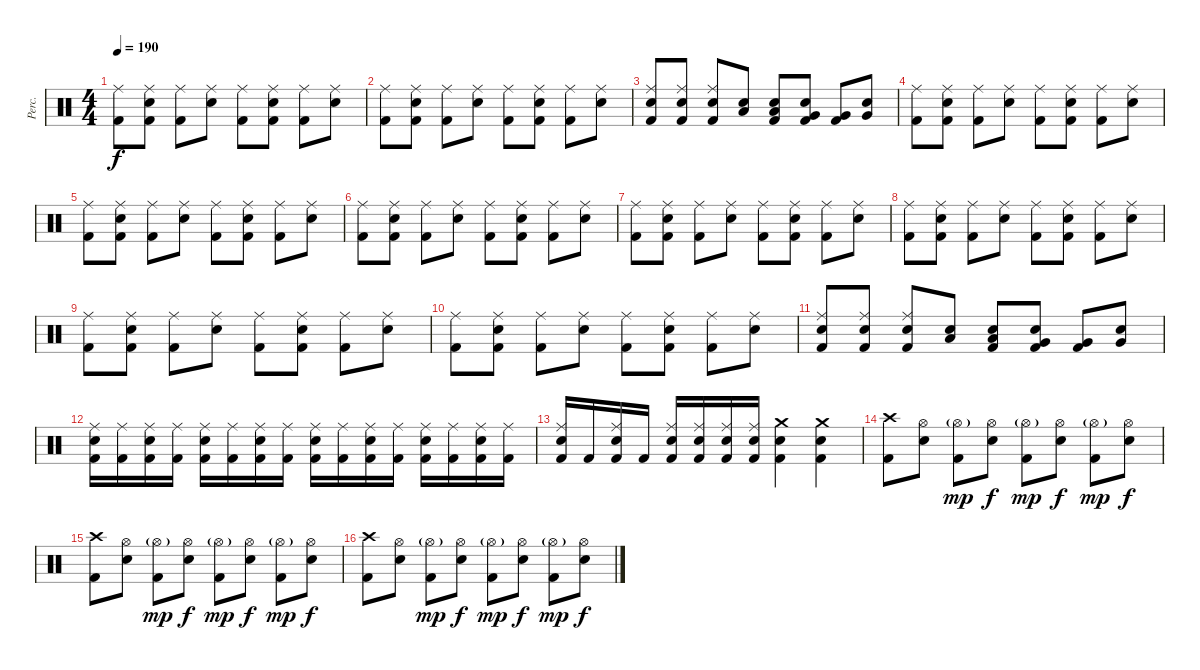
\track ("Perc." "Perc.") {instrument percussion}
\staff {score}
\articulation defaults
\ts (4 4)
\tempo 190
\clef neutral
\ks c
("Kick (hit) 2" "Ride (middle)").8{dy f} ("Kick (hit) 2" "Snare (hit) 2" "Ride (middle)").8 ("Kick (hit) 2" "Ride (middle)").8 ("Snare (hit) 2" "Ride (middle)").8 ("Kick (hit) 2" "Ride (middle)").8 ("Kick (hit) 2" "Snare (hit) 2" "Ride (middle)").8 ("Kick (hit) 2" "Ride (middle)").8 ("Snare (hit) 2" "Ride (middle)").8 |
("Kick (hit) 2" "Ride (middle)").8 ("Kick (hit) 2" "Snare (hit) 2" "Ride (middle)").8 ("Kick (hit) 2" "Ride (middle)").8 ("Snare (hit) 2" "Ride (middle)").8 ("Kick (hit) 2" "Ride (middle)").8 ("Kick (hit) 2" "Snare (hit) 2" "Ride (middle)").8 ("Kick (hit) 2" "Ride (middle)").8 ("Snare (hit) 2" "Ride (middle)").8 |
("Kick (hit) 2" "Snare (hit) 2" "Ride (middle)").8 ("Kick (hit) 2" "Snare (hit) 2" "Ride (middle)").8 ("Kick (hit) 2" "Snare (hit) 2" "Ride (middle)").8 ("Snare (hit) 2" "Low Tom (hit)").8 ("Kick (hit) 2" "Snare (hit) 2" "Low Tom (hit)").8 ("Kick (hit) 2" "Snare (hit) 2" "Very Low Tom (hit)").8 ("Kick (hit) 2" "Very Low Tom (hit)").8 ("Snare (hit) 2" "Very Low Tom (hit)").8 |
("Kick (hit) 2" "Ride (middle)").8 ("Kick (hit) 2" "Snare (hit) 2" "Ride (middle)").8 ("Kick (hit) 2" "Ride (middle)").8 ("Snare (hit) 2" "Ride (middle)").8 ("Kick (hit) 2" "Ride (middle)").8 ("Kick (hit) 2" "Snare (hit) 2" "Ride (middle)").8 ("Kick (hit) 2" "Ride (middle)").8 ("Snare (hit) 2" "Ride (middle)").8 |
("Kick (hit) 2" "Ride (middle)").8 ("Kick (hit) 2" "Snare (hit) 2" "Ride (middle)").8 ("Kick (hit) 2" "Ride (middle)").8 ("Snare (hit) 2" "Ride (middle)").8 ("Kick (hit) 2" "Ride (middle)").8 ("Kick (hit) 2" "Snare (hit) 2" "Ride (middle)").8 ("Kick (hit) 2" "Ride (middle)").8 ("Snare (hit) 2" "Ride (middle)").8 |
("Kick (hit) 2" "Ride (middle)").8 ("Kick (hit) 2" "Snare (hit) 2" "Ride (middle)").8 ("Kick (hit) 2" "Ride (middle)").8 ("Snare (hit) 2" "Ride (middle)").8 ("Kick (hit) 2" "Ride (middle)").8 ("Kick (hit) 2" "Snare (hit) 2" "Ride (middle)").8 ("Kick (hit) 2" "Ride (middle)").8 ("Snare (hit) 2" "Ride (middle)").8 |
("Kick (hit) 2" "Ride (middle)").8 ("Kick (hit) 2" "Snare (hit) 2" "Ride (middle)").8 ("Kick (hit) 2" "Ride (middle)").8 ("Snare (hit) 2" "Ride (middle)").8 ("Kick (hit) 2" "Ride (middle)").8 ("Kick (hit) 2" "Snare (hit) 2" "Ride (middle)").8 ("Kick (hit) 2" "Ride (middle)").8 ("Snare (hit) 2" "Ride (middle)").8 |
("Kick (hit) 2" "Ride (middle)").8 ("Kick (hit) 2" "Snare (hit) 2" "Ride (middle)").8 ("Kick (hit) 2" "Ride (middle)").8 ("Snare (hit) 2" "Ride (middle)").8 ("Kick (hit) 2" "Ride (middle)").8 ("Kick (hit) 2" "Snare (hit) 2" "Ride (middle)").8 ("Kick (hit) 2" "Ride (middle)").8 ("Snare (hit) 2" "Ride (middle)").8 |
("Kick (hit) 2" "Ride (middle)").8 ("Kick (hit) 2" "Snare (hit) 2" "Ride (middle)").8 ("Kick (hit) 2" "Ride (middle)").8 ("Snare (hit) 2" "Ride (middle)").8 ("Kick (hit) 2" "Ride (middle)").8 ("Kick (hit) 2" "Snare (hit) 2" "Ride (middle)").8 ("Kick (hit) 2" "Ride (middle)").8 ("Snare (hit) 2" "Ride (middle)").8 |
("Kick (hit) 2" "Ride (middle)").8 ("Kick (hit) 2" "Snare (hit) 2" "Ride (middle)").8 ("Kick (hit) 2" "Ride (middle)").8 ("Snare (hit) 2" "Ride (middle)").8 ("Kick (hit) 2" "Ride (middle)").8 ("Kick (hit) 2" "Snare (hit) 2" "Ride (middle)").8 ("Kick (hit) 2" "Ride (middle)").8 ("Snare (hit) 2" "Ride (middle)").8 |
("Kick (hit) 2" "Snare (hit) 2" "Ride (middle)").8 ("Kick (hit) 2" "Snare (hit) 2" "Ride (middle)").8 ("Kick (hit) 2" "Snare (hit) 2" "Ride (middle)").8 ("Snare (hit) 2" "Low Tom (hit)").8 ("Kick (hit) 2" "Snare (hit) 2" "Low Tom (hit)").8 ("Kick (hit) 2" "Snare (hit) 2" "Very Low Tom (hit)").8 ("Kick (hit) 2" "Very Low Tom (hit)").8 ("Snare (hit) 2" "Very Low Tom (hit)").8 |
("Snare (hit) 2" "Kick (hit) 2" "Ride (middle)").16 ("Kick (hit) 2" "Ride (middle)").16 ("Snare (hit) 2" "Kick (hit) 2" "Ride (middle)").16 ("Kick (hit) 2" "Ride (middle)").16 ("Snare (hit) 2" "Kick (hit) 2" "Ride (middle)").16 ("Kick (hit) 2" "Ride (middle)").16 ("Snare (hit) 2" "Kick (hit) 2" "Ride (middle)").16 ("Kick (hit) 2" "Ride (middle)").16 ("Snare (hit) 2" "Kick (hit) 2" "Ride (middle)").16 ("Kick (hit) 2" "Ride (middle)").16 ("Snare (hit) 2" "Kick (hit) 2" "Ride (middle)").16 ("Kick (hit) 2" "Ride (middle)").16 ("Snare (hit) 2" "Kick (hit) 2" "Ride (middle)").16 ("Kick (hit) 2" "Ride (middle)").16 ("Snare (hit) 2" "Kick (hit) 2" "Ride (middle)").16 ("Kick (hit) 2" "Ride (middle)").16 |
("Ride (middle)" "Kick (hit) 2" "Snare (hit) 2").16 "Kick (hit) 2".16 ("Ride (middle)" "Kick (hit) 2" "Snare (hit) 2").16 "Kick (hit) 2".16 ("Ride (middle)" "Kick (hit) 2" "Snare (hit) 2").16 ("Ride (middle)" "Kick (hit) 2" "Snare (hit) 2").16 ("Ride (middle)" "Kick (hit) 2" "Snare (hit) 2").16 ("Ride (middle)" "Kick (hit) 2" "Snare (hit) 2").16 ("Kick (hit) 2" "Snare (hit) 2" "Crash medium (hit)").4 ("Kick (hit) 2" "Snare (hit) 2" "Crash medium (hit)").4 |
("Crash high (hit)" "Kick (hit) 2").8 ("Hi-Hat (open)" "Snare (hit) 2").8 ("Hi-Hat (open)"{g} "Kick (hit) 2").8{dy mp} ("Hi-Hat (open)" "Snare (hit) 2").8{dy f} ("Hi-Hat (open)"{g} "Kick (hit) 2").8{dy mp} ("Hi-Hat (open)" "Snare (hit) 2").8{dy f} ("Hi-Hat (open)"{g} "Kick (hit) 2").8{dy mp} ("Hi-Hat (open)" "Snare (hit) 2").8{dy f} |
("Crash high (hit)" "Kick (hit) 2").8 ("Hi-Hat (open)" "Snare (hit) 2").8 ("Hi-Hat (open)"{g} "Kick (hit) 2").8{dy mp} ("Hi-Hat (open)" "Snare (hit) 2").8{dy f} ("Hi-Hat (open)"{g} "Kick (hit) 2").8{dy mp} ("Hi-Hat (open)" "Snare (hit) 2").8{dy f} ("Hi-Hat (open)"{g} "Kick (hit) 2").8{dy mp} ("Hi-Hat (open)" "Snare (hit) 2").8{dy f} |
("Crash high (hit)" "Kick (hit) 2").8 ("Hi-Hat (open)" "Snare (hit) 2").8 ("Hi-Hat (open)"{g} "Kick (hit) 2").8{dy mp} ("Hi-Hat (open)" "Snare (hit) 2").8{dy f} ("Hi-Hat (open)"{g} "Kick (hit) 2").8{dy mp} ("Hi-Hat (open)" "Snare (hit) 2").8{dy f} ("Hi-Hat (open)"{g} "Kick (hit) 2").8{dy mp} ("Hi-Hat (open)" "Snare (hit) 2").8{dy f}
